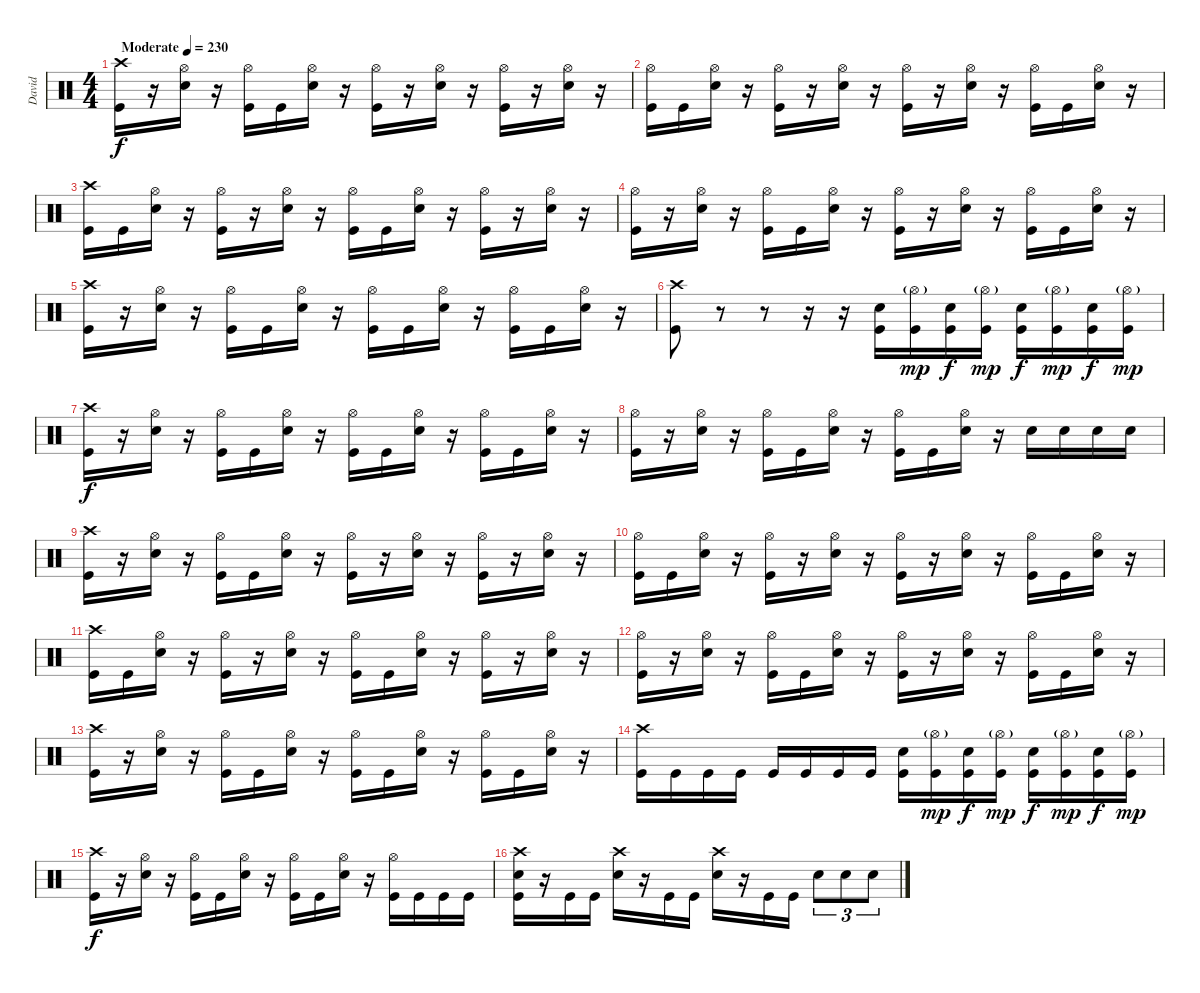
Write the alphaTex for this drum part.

\track ("David" "David") {instrument percussion}
\staff {score}
\articulation defaults
\ts (4 4)
\tempo (230 "Moderate")
\clef neutral
\ks c
("Crash high (hit)" "Kick (hit)").16{dy f} r.16 ("Hi-Hat (open)" "Electric Snare (hit)").16 r.16 ("Hi-Hat (open)" "Kick (hit)").16 "Kick (hit)".16 ("Hi-Hat (open)" "Electric Snare (hit)").16 r.16 ("Hi-Hat (open)" "Kick (hit)").16 r.16 ("Hi-Hat (open)" "Electric Snare (hit)").16 r.16 ("Hi-Hat (open)" "Kick (hit)").16 r.16 ("Hi-Hat (open)" "Electric Snare (hit)").16 r.16 |
("Hi-Hat (open)" "Kick (hit)").16 "Kick (hit)".16 ("Hi-Hat (open)" "Electric Snare (hit)").16 r.16 ("Hi-Hat (open)" "Kick (hit)").16 r.16 ("Hi-Hat (open)" "Electric Snare (hit)").16 r.16 ("Hi-Hat (open)" "Kick (hit)").16 r.16 ("Hi-Hat (open)" "Electric Snare (hit)").16 r.16 ("Hi-Hat (open)" "Kick (hit)").16 "Kick (hit)".16 ("Hi-Hat (open)" "Electric Snare (hit)").16 r.16 |
("Crash high (hit)" "Kick (hit)").16 "Kick (hit)".16 ("Hi-Hat (open)" "Electric Snare (hit)").16 r.16 ("Hi-Hat (open)" "Kick (hit)").16 r.16 ("Hi-Hat (open)" "Electric Snare (hit)").16 r.16 ("Hi-Hat (open)" "Kick (hit)").16 "Kick (hit)".16 ("Hi-Hat (open)" "Electric Snare (hit)").16 r.16 ("Hi-Hat (open)" "Kick (hit)").16 r.16 ("Hi-Hat (open)" "Electric Snare (hit)").16 r.16 |
("Hi-Hat (open)" "Kick (hit)").16 r.16 ("Hi-Hat (open)" "Electric Snare (hit)").16 r.16 ("Hi-Hat (open)" "Kick (hit)").16 "Kick (hit)".16 ("Hi-Hat (open)" "Electric Snare (hit)").16 r.16 ("Hi-Hat (open)" "Kick (hit)").16 r.16 ("Hi-Hat (open)" "Electric Snare (hit)").16 r.16 ("Hi-Hat (open)" "Kick (hit)").16 "Kick (hit)".16 ("Hi-Hat (open)" "Electric Snare (hit)").16 r.16 |
("Crash high (hit)" "Kick (hit)").16 r.16 ("Hi-Hat (open)" "Electric Snare (hit)").16 r.16 ("Hi-Hat (open)" "Kick (hit)").16 "Kick (hit)".16 ("Hi-Hat (open)" "Electric Snare (hit)").16 r.16 ("Hi-Hat (open)" "Kick (hit)").16 "Kick (hit)".16 ("Hi-Hat (open)" "Electric Snare (hit)").16 r.16 ("Hi-Hat (open)" "Kick (hit)").16 "Kick (hit)".16 ("Hi-Hat (open)" "Electric Snare (hit)").16 r.16 |
("Crash high (hit)" "Kick (hit)").8 r.8 r.8 r.16 r.16 ("Electric Snare (hit)" "Kick (hit)").16 ("Hi-Hat (open)"{g} "Kick (hit)").16{dy mp} ("Electric Snare (hit)" "Kick (hit)").16{dy f} ("Hi-Hat (open)"{g} "Kick (hit)").16{dy mp} ("Electric Snare (hit)" "Kick (hit)").16{dy f} ("Hi-Hat (open)"{g} "Kick (hit)").16{dy mp} ("Electric Snare (hit)" "Kick (hit)").16{dy f} ("Hi-Hat (open)"{g} "Kick (hit)").16{dy mp} |
("Crash high (hit)" "Kick (hit)").16{dy f} r.16 ("Hi-Hat (open)" "Electric Snare (hit)").16 r.16 ("Hi-Hat (open)" "Kick (hit)").16 "Kick (hit)".16 ("Hi-Hat (open)" "Electric Snare (hit)").16 r.16 ("Hi-Hat (open)" "Kick (hit)").16 "Kick (hit)".16 ("Hi-Hat (open)" "Electric Snare (hit)").16 r.16 ("Hi-Hat (open)" "Kick (hit)").16 "Kick (hit)".16 ("Hi-Hat (open)" "Electric Snare (hit)").16 r.16 |
("Hi-Hat (open)" "Kick (hit)").16 r.16 ("Hi-Hat (open)" "Electric Snare (hit)").16 r.16 ("Hi-Hat (open)" "Kick (hit)").16 "Kick (hit)".16 ("Hi-Hat (open)" "Electric Snare (hit)").16 r.16 ("Hi-Hat (open)" "Kick (hit)").16 "Kick (hit)".16 ("Hi-Hat (open)" "Electric Snare (hit)").16 r.16 "Electric Snare (hit)".16 "Electric Snare (hit)".16 "Electric Snare (hit)".16 "Electric Snare (hit)".16 |
("Crash high (hit)" "Kick (hit)").16 r.16 ("Hi-Hat (open)" "Electric Snare (hit)").16 r.16 ("Hi-Hat (open)" "Kick (hit)").16 "Kick (hit)".16 ("Hi-Hat (open)" "Electric Snare (hit)").16 r.16 ("Hi-Hat (open)" "Kick (hit)").16 r.16 ("Hi-Hat (open)" "Electric Snare (hit)").16 r.16 ("Hi-Hat (open)" "Kick (hit)").16 r.16 ("Hi-Hat (open)" "Electric Snare (hit)").16 r.16 |
("Hi-Hat (open)" "Kick (hit)").16 "Kick (hit)".16 ("Hi-Hat (open)" "Electric Snare (hit)").16 r.16 ("Hi-Hat (open)" "Kick (hit)").16 r.16 ("Hi-Hat (open)" "Electric Snare (hit)").16 r.16 ("Hi-Hat (open)" "Kick (hit)").16 r.16 ("Hi-Hat (open)" "Electric Snare (hit)").16 r.16 ("Hi-Hat (open)" "Kick (hit)").16 "Kick (hit)".16 ("Hi-Hat (open)" "Electric Snare (hit)").16 r.16 |
("Crash high (hit)" "Kick (hit)").16 "Kick (hit)".16 ("Hi-Hat (open)" "Electric Snare (hit)").16 r.16 ("Hi-Hat (open)" "Kick (hit)").16 r.16 ("Hi-Hat (open)" "Electric Snare (hit)").16 r.16 ("Hi-Hat (open)" "Kick (hit)").16 "Kick (hit)".16 ("Hi-Hat (open)" "Electric Snare (hit)").16 r.16 ("Hi-Hat (open)" "Kick (hit)").16 r.16 ("Hi-Hat (open)" "Electric Snare (hit)").16 r.16 |
("Hi-Hat (open)" "Kick (hit)").16 r.16 ("Hi-Hat (open)" "Electric Snare (hit)").16 r.16 ("Hi-Hat (open)" "Kick (hit)").16 "Kick (hit)".16 ("Hi-Hat (open)" "Electric Snare (hit)").16 r.16 ("Hi-Hat (open)" "Kick (hit)").16 r.16 ("Hi-Hat (open)" "Electric Snare (hit)").16 r.16 ("Hi-Hat (open)" "Kick (hit)").16 "Kick (hit)".16 ("Hi-Hat (open)" "Electric Snare (hit)").16 r.16 |
("Crash high (hit)" "Kick (hit)").16 r.16 ("Hi-Hat (open)" "Electric Snare (hit)").16 r.16 ("Hi-Hat (open)" "Kick (hit)").16 "Kick (hit)".16 ("Hi-Hat (open)" "Electric Snare (hit)").16 r.16 ("Hi-Hat (open)" "Kick (hit)").16 "Kick (hit)".16 ("Hi-Hat (open)" "Electric Snare (hit)").16 r.16 ("Hi-Hat (open)" "Kick (hit)").16 "Kick (hit)".16 ("Hi-Hat (open)" "Electric Snare (hit)").16 r.16 |
("Crash high (hit)" "Kick (hit)").16 "Kick (hit)".16 "Kick (hit)".16 "Kick (hit)".16 "Kick (hit)".16 "Kick (hit)".16 "Kick (hit)".16 "Kick (hit)".16 ("Electric Snare (hit)" "Kick (hit)").16 ("Hi-Hat (open)"{g} "Kick (hit)").16{dy mp} ("Electric Snare (hit)" "Kick (hit)").16{dy f} ("Hi-Hat (open)"{g} "Kick (hit)").16{dy mp} ("Electric Snare (hit)" "Kick (hit)").16{dy f} ("Hi-Hat (open)"{g} "Kick (hit)").16{dy mp} ("Electric Snare (hit)" "Kick (hit)").16{dy f} ("Hi-Hat (open)"{g} "Kick (hit)").16{dy mp} |
("Crash high (hit)" "Kick (hit)").16{dy f} r.16 ("Hi-Hat (open)" "Electric Snare (hit)").16 r.16 ("Hi-Hat (open)" "Kick (hit)").16 "Kick (hit)".16 ("Hi-Hat (open)" "Electric Snare (hit)").16 r.16 ("Hi-Hat (open)" "Kick (hit)").16 "Kick (hit)".16 ("Hi-Hat (open)" "Electric Snare (hit)").16 r.16 ("Hi-Hat (open)" "Kick (hit)").16 "Kick (hit)".16 "Kick (hit)".16 "Kick (hit)".16 |
("Crash high (hit)" "Electric Snare (hit)" "Kick (hit)").16 r.16 "Kick (hit)".16 "Kick (hit)".16 ("Crash high (hit)" "Electric Snare (hit)").16 r.16 "Kick (hit)".16 "Kick (hit)".16 ("Crash high (hit)" "Electric Snare (hit)").16 r.16 "Kick (hit)".16 "Kick (hit)".16 "Electric Snare (hit)".8{tu (3 2)} "Electric Snare (hit)".8{tu (3 2)} "Electric Snare (hit)".8{tu (3 2)}
